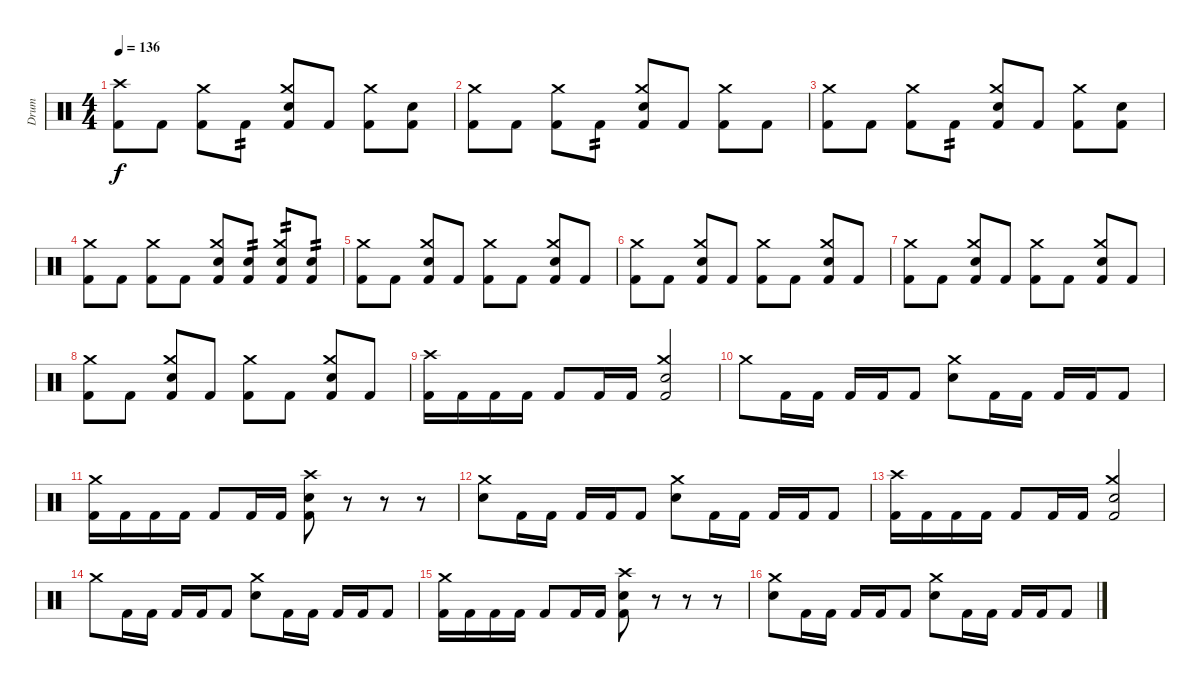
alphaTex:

\track ("Drum" "Drum") {instrument percussion}
\staff {score}
\articulation defaults
\ts (4 4)
\tempo 136
\clef neutral
\ks c
("Crash high (hit)" "Kick (hit) 2").8{dy f} "Kick (hit) 2".8 ("Crash medium (hit)" "Kick (hit) 2").8 "Kick (hit) 2".8{tp 2} ("Crash medium (hit)" "Electric Snare (hit)" "Kick (hit) 2").8 "Kick (hit) 2".8 ("Crash medium (hit)" "Kick (hit) 2").8 ("Electric Snare (hit)" "Kick (hit) 2").8 |
("Crash medium (hit)" "Kick (hit) 2").8 "Kick (hit) 2".8 ("Crash medium (hit)" "Kick (hit) 2").8 "Kick (hit) 2".8{tp 2} ("Crash medium (hit)" "Electric Snare (hit)" "Kick (hit) 2").8 "Kick (hit) 2".8 ("Crash medium (hit)" "Kick (hit) 2").8 "Kick (hit) 2".8 |
("Crash medium (hit)" "Kick (hit) 2").8 "Kick (hit) 2".8 ("Crash medium (hit)" "Kick (hit) 2").8 "Kick (hit) 2".8{tp 2} ("Crash medium (hit)" "Electric Snare (hit)" "Kick (hit) 2").8 "Kick (hit) 2".8 ("Crash medium (hit)" "Kick (hit) 2").8 ("Electric Snare (hit)" "Kick (hit) 2").8 |
("Crash medium (hit)" "Kick (hit) 2").8 "Kick (hit) 2".8 ("Crash medium (hit)" "Kick (hit) 2").8 "Kick (hit) 2".8 ("Crash medium (hit)" "Electric Snare (hit)" "Kick (hit) 2").8 ("Electric Snare (hit)" "Kick (hit) 2").8{tp 2} ("Crash medium (hit)" "Electric Snare (hit)" "Kick (hit) 2").8{tp 2} ("Electric Snare (hit)" "Kick (hit) 2").8{tp 2} |
("Crash medium (hit)" "Kick (hit) 2").8 "Kick (hit) 2".8 ("Crash medium (hit)" "Electric Snare (hit)" "Kick (hit) 2").8 "Kick (hit) 2".8 ("Crash medium (hit)" "Kick (hit) 2").8 "Kick (hit) 2".8 ("Crash medium (hit)" "Electric Snare (hit)" "Kick (hit) 2").8 "Kick (hit) 2".8 |
("Crash medium (hit)" "Kick (hit) 2").8 "Kick (hit) 2".8 ("Crash medium (hit)" "Electric Snare (hit)" "Kick (hit) 2").8 "Kick (hit) 2".8 ("Crash medium (hit)" "Kick (hit) 2").8 "Kick (hit) 2".8 ("Crash medium (hit)" "Electric Snare (hit)" "Kick (hit) 2").8 "Kick (hit) 2".8 |
("Crash medium (hit)" "Kick (hit) 2").8 "Kick (hit) 2".8 ("Crash medium (hit)" "Electric Snare (hit)" "Kick (hit) 2").8 "Kick (hit) 2".8 ("Crash medium (hit)" "Kick (hit) 2").8 "Kick (hit) 2".8 ("Crash medium (hit)" "Electric Snare (hit)" "Kick (hit) 2").8 "Kick (hit) 2".8 |
("Crash medium (hit)" "Kick (hit) 2").8 "Kick (hit) 2".8 ("Crash medium (hit)" "Electric Snare (hit)" "Kick (hit) 2").8 "Kick (hit) 2".8 ("Crash medium (hit)" "Kick (hit) 2").8 "Kick (hit) 2".8 ("Crash medium (hit)" "Electric Snare (hit)" "Kick (hit) 2").8 "Kick (hit) 2".8 |
("Crash high (hit)" "Kick (hit) 2").16 "Kick (hit) 2".16 "Kick (hit) 2".16 "Kick (hit) 2".16 "Kick (hit) 2".8 "Kick (hit) 2".16 "Kick (hit) 2".16 ("Crash medium (hit)" "Electric Snare (hit)" "Kick (hit) 2").2 |
"Crash medium (hit)".8 "Kick (hit) 2".16 "Kick (hit) 2".16 "Kick (hit) 2".16 "Kick (hit) 2".16 "Kick (hit) 2".8 ("Crash medium (hit)" "Electric Snare (hit)").8 "Kick (hit) 2".16 "Kick (hit) 2".16 "Kick (hit) 2".16 "Kick (hit) 2".16 "Kick (hit) 2".8 |
("Crash medium (hit)" "Kick (hit) 2").16 "Kick (hit) 2".16 "Kick (hit) 2".16 "Kick (hit) 2".16 "Kick (hit) 2".8 "Kick (hit) 2".16 "Kick (hit) 2".16 ("Crash high (hit)" "Electric Snare (hit)" "Kick (hit) 2").8 r.8 r.8 r.8 |
("Crash medium (hit)" "Electric Snare (hit)").8 "Kick (hit) 2".16 "Kick (hit) 2".16 "Kick (hit) 2".16 "Kick (hit) 2".16 "Kick (hit) 2".8 ("Crash medium (hit)" "Electric Snare (hit)").8 "Kick (hit) 2".16 "Kick (hit) 2".16 "Kick (hit) 2".16 "Kick (hit) 2".16 "Kick (hit) 2".8 |
("Crash high (hit)" "Kick (hit) 2").16 "Kick (hit) 2".16 "Kick (hit) 2".16 "Kick (hit) 2".16 "Kick (hit) 2".8 "Kick (hit) 2".16 "Kick (hit) 2".16 ("Crash medium (hit)" "Electric Snare (hit)" "Kick (hit) 2").2 |
"Crash medium (hit)".8 "Kick (hit) 2".16 "Kick (hit) 2".16 "Kick (hit) 2".16 "Kick (hit) 2".16 "Kick (hit) 2".8 ("Crash medium (hit)" "Electric Snare (hit)").8 "Kick (hit) 2".16 "Kick (hit) 2".16 "Kick (hit) 2".16 "Kick (hit) 2".16 "Kick (hit) 2".8 |
("Crash medium (hit)" "Kick (hit) 2").16 "Kick (hit) 2".16 "Kick (hit) 2".16 "Kick (hit) 2".16 "Kick (hit) 2".8 "Kick (hit) 2".16 "Kick (hit) 2".16 ("Crash high (hit)" "Electric Snare (hit)" "Kick (hit) 2").8 r.8 r.8 r.8 |
("Crash medium (hit)" "Electric Snare (hit)").8 "Kick (hit) 2".16 "Kick (hit) 2".16 "Kick (hit) 2".16 "Kick (hit) 2".16 "Kick (hit) 2".8 ("Crash medium (hit)" "Electric Snare (hit)").8 "Kick (hit) 2".16 "Kick (hit) 2".16 "Kick (hit) 2".16 "Kick (hit) 2".16 "Kick (hit) 2".8
